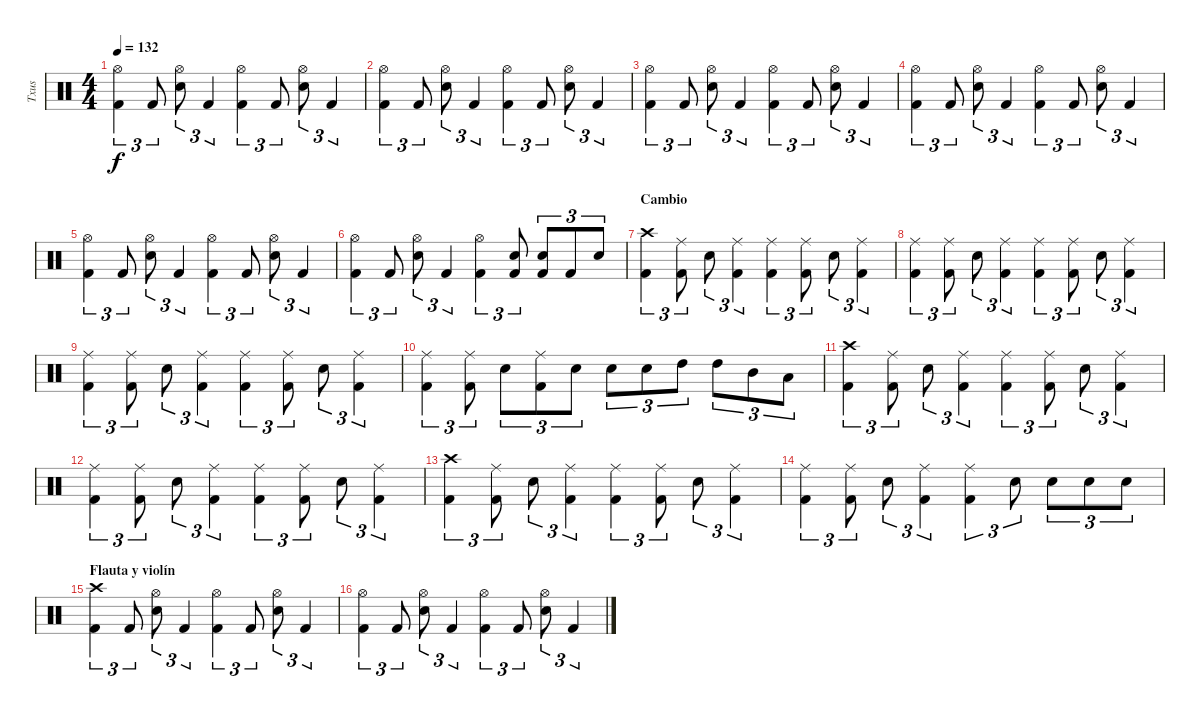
\track ("Txus" "Txus") {instrument percussion}
\staff {score}
\articulation defaults
\ts (4 4)
\tempo 132
\clef neutral
\ks c
("Kick (hit) 2" "Hi-Hat (open)").4{tu (3 2) dy f} "Kick (hit) 2".8{tu (3 2)} ("Electric Snare (hit)" "Hi-Hat (open)").8{tu (3 2)} "Kick (hit) 2".4{tu (3 2)} ("Kick (hit) 2" "Hi-Hat (open)").4{tu (3 2)} "Kick (hit) 2".8{tu (3 2)} ("Electric Snare (hit)" "Hi-Hat (open)").8{tu (3 2)} "Kick (hit) 2".4{tu (3 2)} |
("Kick (hit) 2" "Hi-Hat (open)").4{tu (3 2)} "Kick (hit) 2".8{tu (3 2)} ("Electric Snare (hit)" "Hi-Hat (open)").8{tu (3 2)} "Kick (hit) 2".4{tu (3 2)} ("Kick (hit) 2" "Hi-Hat (open)").4{tu (3 2)} "Kick (hit) 2".8{tu (3 2)} ("Electric Snare (hit)" "Hi-Hat (open)").8{tu (3 2)} "Kick (hit) 2".4{tu (3 2)} |
("Kick (hit) 2" "Hi-Hat (open)").4{tu (3 2)} "Kick (hit) 2".8{tu (3 2)} ("Electric Snare (hit)" "Hi-Hat (open)").8{tu (3 2)} "Kick (hit) 2".4{tu (3 2)} ("Kick (hit) 2" "Hi-Hat (open)").4{tu (3 2)} "Kick (hit) 2".8{tu (3 2)} ("Electric Snare (hit)" "Hi-Hat (open)").8{tu (3 2)} "Kick (hit) 2".4{tu (3 2)} |
("Kick (hit) 2" "Hi-Hat (open)").4{tu (3 2)} "Kick (hit) 2".8{tu (3 2)} ("Electric Snare (hit)" "Hi-Hat (open)").8{tu (3 2)} "Kick (hit) 2".4{tu (3 2)} ("Kick (hit) 2" "Hi-Hat (open)").4{tu (3 2)} "Kick (hit) 2".8{tu (3 2)} ("Electric Snare (hit)" "Hi-Hat (open)").8{tu (3 2)} "Kick (hit) 2".4{tu (3 2)} |
("Kick (hit) 2" "Hi-Hat (open)").4{tu (3 2)} "Kick (hit) 2".8{tu (3 2)} ("Electric Snare (hit)" "Hi-Hat (open)").8{tu (3 2)} "Kick (hit) 2".4{tu (3 2)} ("Kick (hit) 2" "Hi-Hat (open)").4{tu (3 2)} "Kick (hit) 2".8{tu (3 2)} ("Electric Snare (hit)" "Hi-Hat (open)").8{tu (3 2)} "Kick (hit) 2".4{tu (3 2)} |
("Kick (hit) 2" "Hi-Hat (open)").4{tu (3 2)} "Kick (hit) 2".8{tu (3 2)} ("Electric Snare (hit)" "Hi-Hat (open)").8{tu (3 2)} "Kick (hit) 2".4{tu (3 2)} ("Kick (hit) 2" "Hi-Hat (open)").4{tu (3 2)} ("Kick (hit) 2" "Electric Snare (hit)").8{tu (3 2)} ("Kick (hit) 2" "Electric Snare (hit)").8{tu (3 2)} "Kick (hit) 2".8{tu (3 2)} "Electric Snare (hit)".8{tu (3 2)} |
\section ("" "Cambio")
("Kick (hit) 2" "Crash high (hit)").4{tu (3 2)} ("Kick (hit) 2" "Ride (middle)").8{tu (3 2)} "Electric Snare (hit)".8{tu (3 2)} ("Kick (hit) 2" "Ride (middle)").4{tu (3 2)} ("Kick (hit) 2" "Ride (middle)").4{tu (3 2)} ("Kick (hit) 2" "Ride (middle)").8{tu (3 2)} "Electric Snare (hit)".8{tu (3 2)} ("Kick (hit) 2" "Ride (middle)").4{tu (3 2)} |
("Kick (hit) 2" "Ride (middle)").4{tu (3 2)} ("Kick (hit) 2" "Ride (middle)").8{tu (3 2)} "Electric Snare (hit)".8{tu (3 2)} ("Kick (hit) 2" "Ride (middle)").4{tu (3 2)} ("Kick (hit) 2" "Ride (middle)").4{tu (3 2)} ("Kick (hit) 2" "Ride (middle)").8{tu (3 2)} "Electric Snare (hit)".8{tu (3 2)} ("Kick (hit) 2" "Ride (middle)").4{tu (3 2)} |
("Kick (hit) 2" "Ride (middle)").4{tu (3 2)} ("Kick (hit) 2" "Ride (middle)").8{tu (3 2)} "Electric Snare (hit)".8{tu (3 2)} ("Kick (hit) 2" "Ride (middle)").4{tu (3 2)} ("Kick (hit) 2" "Ride (middle)").4{tu (3 2)} ("Kick (hit) 2" "Ride (middle)").8{tu (3 2)} "Electric Snare (hit)".8{tu (3 2)} ("Kick (hit) 2" "Ride (middle)").4{tu (3 2)} |
("Kick (hit) 2" "Ride (middle)").4{tu (3 2)} ("Kick (hit) 2" "Ride (middle)").8{tu (3 2)} "Electric Snare (hit)".8{tu (3 2)} ("Kick (hit) 2" "Ride (middle)").8{tu (3 2)} "Electric Snare (hit)".8{tu (3 2)} "Electric Snare (hit)".8{tu (3 2)} "Electric Snare (hit)".8{tu (3 2)} "High Tom (hit)".8{tu (3 2)} "High Tom (hit)".8{tu (3 2)} "Mid Tom (hit)".8{tu (3 2)} "Low Tom (hit)".8{tu (3 2)} |
("Kick (hit) 2" "Crash high (hit)").4{tu (3 2)} ("Kick (hit) 2" "Ride (middle)").8{tu (3 2)} "Electric Snare (hit)".8{tu (3 2)} ("Kick (hit) 2" "Ride (middle)").4{tu (3 2)} ("Kick (hit) 2" "Ride (middle)").4{tu (3 2)} ("Kick (hit) 2" "Ride (middle)").8{tu (3 2)} "Electric Snare (hit)".8{tu (3 2)} ("Kick (hit) 2" "Ride (middle)").4{tu (3 2)} |
("Kick (hit) 2" "Ride (middle)").4{tu (3 2)} ("Kick (hit) 2" "Ride (middle)").8{tu (3 2)} "Electric Snare (hit)".8{tu (3 2)} ("Kick (hit) 2" "Ride (middle)").4{tu (3 2)} ("Kick (hit) 2" "Ride (middle)").4{tu (3 2)} ("Kick (hit) 2" "Ride (middle)").8{tu (3 2)} "Electric Snare (hit)".8{tu (3 2)} ("Kick (hit) 2" "Ride (middle)").4{tu (3 2)} |
("Kick (hit) 2" "Crash high (hit)").4{tu (3 2)} ("Kick (hit) 2" "Ride (middle)").8{tu (3 2)} "Electric Snare (hit)".8{tu (3 2)} ("Kick (hit) 2" "Ride (middle)").4{tu (3 2)} ("Kick (hit) 2" "Ride (middle)").4{tu (3 2)} ("Kick (hit) 2" "Ride (middle)").8{tu (3 2)} "Electric Snare (hit)".8{tu (3 2)} ("Kick (hit) 2" "Ride (middle)").4{tu (3 2)} |
("Kick (hit) 2" "Ride (middle)").4{tu (3 2)} ("Kick (hit) 2" "Ride (middle)").8{tu (3 2)} "Electric Snare (hit)".8{tu (3 2)} ("Kick (hit) 2" "Ride (middle)").4{tu (3 2)} ("Kick (hit) 2" "Ride (middle)").4{tu (3 2)} "Electric Snare (hit)".8{tu (3 2)} "Electric Snare (hit)".8{tu (3 2)} "Electric Snare (hit)".8{tu (3 2)} "Electric Snare (hit)".8{tu (3 2)} |
\section ("" "Flauta y violín")
("Kick (hit) 2" "Crash high (hit)").4{tu (3 2)} "Kick (hit) 2".8{tu (3 2)} ("Electric Snare (hit)" "Hi-Hat (open)").8{tu (3 2)} "Kick (hit) 2".4{tu (3 2)} ("Kick (hit) 2" "Hi-Hat (open)").4{tu (3 2)} "Kick (hit) 2".8{tu (3 2)} ("Electric Snare (hit)" "Hi-Hat (open)").8{tu (3 2)} "Kick (hit) 2".4{tu (3 2)} |
("Kick (hit) 2" "Hi-Hat (open)").4{tu (3 2)} "Kick (hit) 2".8{tu (3 2)} ("Electric Snare (hit)" "Hi-Hat (open)").8{tu (3 2)} "Kick (hit) 2".4{tu (3 2)} ("Kick (hit) 2" "Hi-Hat (open)").4{tu (3 2)} "Kick (hit) 2".8{tu (3 2)} ("Electric Snare (hit)" "Hi-Hat (open)").8{tu (3 2)} "Kick (hit) 2".4{tu (3 2)}
